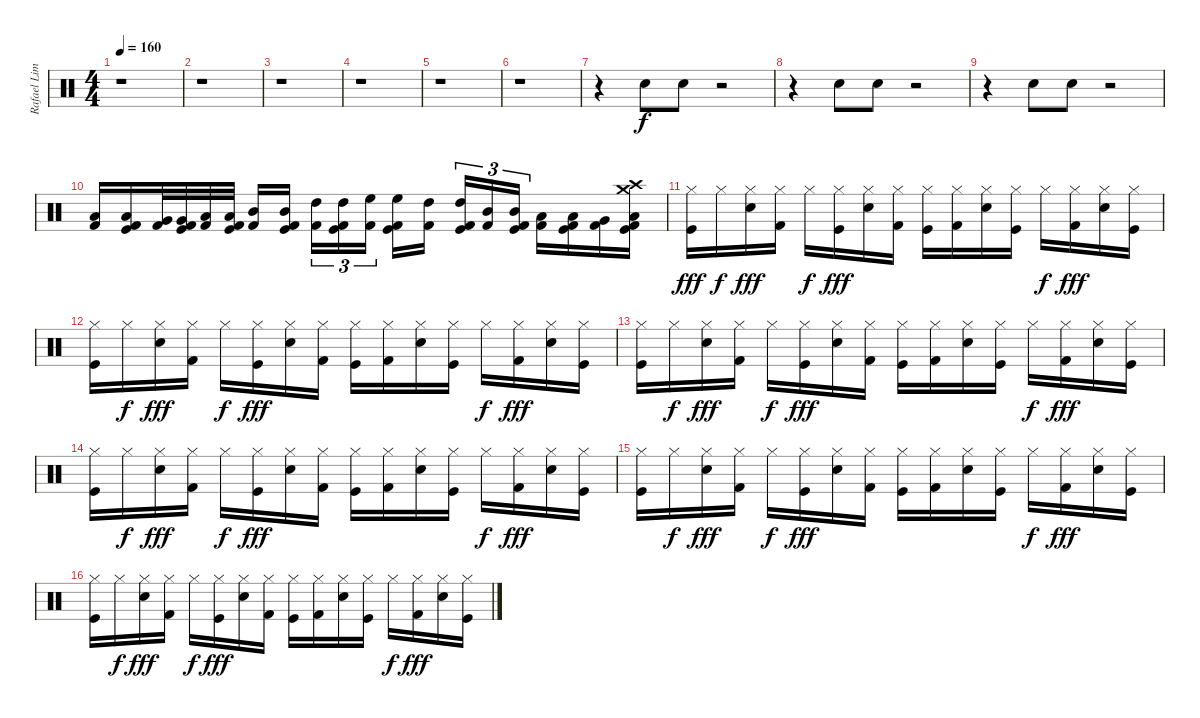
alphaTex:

\track ("Rafael Lima" "Rafael Lim") {instrument percussion}
\staff {score}
\articulation defaults
\ts (4 4)
\tempo 160
\clef neutral
\ks c
r.1{dy fff} |
r.1 |
r.1 |
r.1 |
r.1 |
r.1 |
r.4 "Electric Snare (hit)".8{dy f} "Electric Snare (hit)".8 r.2 |
r.4 "Electric Snare (hit)".8 "Electric Snare (hit)".8 r.2 |
r.4 "Electric Snare (hit)".8 "Electric Snare (hit)".8 r.2 |
("Low Floor Tom (hit)" "Kick (hit) 2").16 ("Low Floor Tom (hit)" "Kick (hit)" "Kick (hit) 2").16 ("Very Low Tom (hit)" "Kick (hit) 2").32 ("Very Low Tom (hit)" "Kick (hit)" "Kick (hit) 2").32 ("Low Tom (hit)" "Kick (hit) 2").32 ("Low Tom (hit)" "Kick (hit)" "Kick (hit) 2").32 ("Mid Tom (hit)" "Kick (hit) 2").16 ("Mid Tom (hit)" "Kick (hit)" "Kick (hit) 2").16 ("High Tom (hit)" "Kick (hit) 2").16{tu (3 2)} ("High Tom (hit)" "Kick (hit)" "Kick (hit) 2").16{tu (3 2)} ("High Floor Tom (hit)" "Kick (hit) 2").16{tu (3 2)} ("High Floor Tom (hit)" "Kick (hit)" "Kick (hit) 2").16 ("High Tom (hit)" "Kick (hit) 2").16 ("High Tom (hit)" "Kick (hit)" "Kick (hit) 2").16{tu (3 2)} ("Mid Tom (hit)" "Kick (hit) 2").16{tu (3 2)} ("Mid Tom (hit)" "Kick (hit)" "Kick (hit) 2").16{tu (3 2)} ("Low Tom (hit)" "Kick (hit) 2").16 ("Low Tom (hit)" "Kick (hit)" "Kick (hit) 2").16 ("Very Low Tom (hit)" "Kick (hit) 2").16 ("Crash medium (hit)" "Crash high (hit)" "Low Floor Tom (hit)" "Kick (hit)" "Kick (hit) 2").16 |
("Hi-Hat (closed)" "Kick (hit)").16{dy fff} "Hi-Hat (closed)".16{dy f} ("Hi-Hat (closed)" "Electric Snare (hit)").16{dy fff} ("Hi-Hat (closed)" "Kick (hit) 2").16 "Hi-Hat (closed)".16{dy f} ("Hi-Hat (closed)" "Kick (hit)").16{dy fff} ("Hi-Hat (closed)" "Electric Snare (hit)").16 ("Hi-Hat (closed)" "Kick (hit) 2").16 ("Hi-Hat (closed)" "Kick (hit)").16 ("Hi-Hat (closed)" "Kick (hit) 2").16 ("Hi-Hat (closed)" "Electric Snare (hit)").16 ("Hi-Hat (closed)" "Kick (hit)").16 "Hi-Hat (closed)".16{dy f} ("Hi-Hat (closed)" "Kick (hit) 2").16{dy fff} ("Hi-Hat (closed)" "Electric Snare (hit)").16 ("Hi-Hat (closed)" "Kick (hit)").16 |
("Hi-Hat (closed)" "Kick (hit)").16 "Hi-Hat (closed)".16{dy f} ("Hi-Hat (closed)" "Electric Snare (hit)").16{dy fff} ("Hi-Hat (closed)" "Kick (hit) 2").16 "Hi-Hat (closed)".16{dy f} ("Hi-Hat (closed)" "Kick (hit)").16{dy fff} ("Hi-Hat (closed)" "Electric Snare (hit)").16 ("Hi-Hat (closed)" "Kick (hit) 2").16 ("Hi-Hat (closed)" "Kick (hit)").16 ("Hi-Hat (closed)" "Kick (hit) 2").16 ("Hi-Hat (closed)" "Electric Snare (hit)").16 ("Hi-Hat (closed)" "Kick (hit)").16 "Hi-Hat (closed)".16{dy f} ("Hi-Hat (closed)" "Kick (hit) 2").16{dy fff} ("Hi-Hat (closed)" "Electric Snare (hit)").16 ("Hi-Hat (closed)" "Kick (hit)").16 |
("Hi-Hat (closed)" "Kick (hit)").16 "Hi-Hat (closed)".16{dy f} ("Hi-Hat (closed)" "Electric Snare (hit)").16{dy fff} ("Hi-Hat (closed)" "Kick (hit) 2").16 "Hi-Hat (closed)".16{dy f} ("Hi-Hat (closed)" "Kick (hit)").16{dy fff} ("Hi-Hat (closed)" "Electric Snare (hit)").16 ("Hi-Hat (closed)" "Kick (hit) 2").16 ("Hi-Hat (closed)" "Kick (hit)").16 ("Hi-Hat (closed)" "Kick (hit) 2").16 ("Hi-Hat (closed)" "Electric Snare (hit)").16 ("Hi-Hat (closed)" "Kick (hit)").16 "Hi-Hat (closed)".16{dy f} ("Hi-Hat (closed)" "Kick (hit) 2").16{dy fff} ("Hi-Hat (closed)" "Electric Snare (hit)").16 ("Hi-Hat (closed)" "Kick (hit)").16 |
("Hi-Hat (closed)" "Kick (hit)").16 "Hi-Hat (closed)".16{dy f} ("Hi-Hat (closed)" "Electric Snare (hit)").16{dy fff} ("Hi-Hat (closed)" "Kick (hit) 2").16 "Hi-Hat (closed)".16{dy f} ("Hi-Hat (closed)" "Kick (hit)").16{dy fff} ("Hi-Hat (closed)" "Electric Snare (hit)").16 ("Hi-Hat (closed)" "Kick (hit) 2").16 ("Hi-Hat (closed)" "Kick (hit)").16 ("Hi-Hat (closed)" "Kick (hit) 2").16 ("Hi-Hat (closed)" "Electric Snare (hit)").16 ("Hi-Hat (closed)" "Kick (hit)").16 "Hi-Hat (closed)".16{dy f} ("Hi-Hat (closed)" "Kick (hit) 2").16{dy fff} ("Hi-Hat (closed)" "Electric Snare (hit)").16 ("Hi-Hat (closed)" "Kick (hit)").16 |
("Hi-Hat (closed)" "Kick (hit)").16 "Hi-Hat (closed)".16{dy f} ("Hi-Hat (closed)" "Electric Snare (hit)").16{dy fff} ("Hi-Hat (closed)" "Kick (hit) 2").16 "Hi-Hat (closed)".16{dy f} ("Hi-Hat (closed)" "Kick (hit)").16{dy fff} ("Hi-Hat (closed)" "Electric Snare (hit)").16 ("Hi-Hat (closed)" "Kick (hit) 2").16 ("Hi-Hat (closed)" "Kick (hit)").16 ("Hi-Hat (closed)" "Kick (hit) 2").16 ("Hi-Hat (closed)" "Electric Snare (hit)").16 ("Hi-Hat (closed)" "Kick (hit)").16 "Hi-Hat (closed)".16{dy f} ("Hi-Hat (closed)" "Kick (hit) 2").16{dy fff} ("Hi-Hat (closed)" "Electric Snare (hit)").16 ("Hi-Hat (closed)" "Kick (hit)").16 |
("Hi-Hat (closed)" "Kick (hit)").16 "Hi-Hat (closed)".16{dy f} ("Hi-Hat (closed)" "Electric Snare (hit)").16{dy fff} ("Hi-Hat (closed)" "Kick (hit) 2").16 "Hi-Hat (closed)".16{dy f} ("Hi-Hat (closed)" "Kick (hit)").16{dy fff} ("Hi-Hat (closed)" "Electric Snare (hit)").16 ("Hi-Hat (closed)" "Kick (hit) 2").16 ("Hi-Hat (closed)" "Kick (hit)").16 ("Hi-Hat (closed)" "Kick (hit) 2").16 ("Hi-Hat (closed)" "Electric Snare (hit)").16 ("Hi-Hat (closed)" "Kick (hit)").16 "Hi-Hat (closed)".16{dy f} ("Hi-Hat (closed)" "Kick (hit) 2").16{dy fff} ("Hi-Hat (closed)" "Electric Snare (hit)").16 ("Hi-Hat (closed)" "Kick (hit)").16
